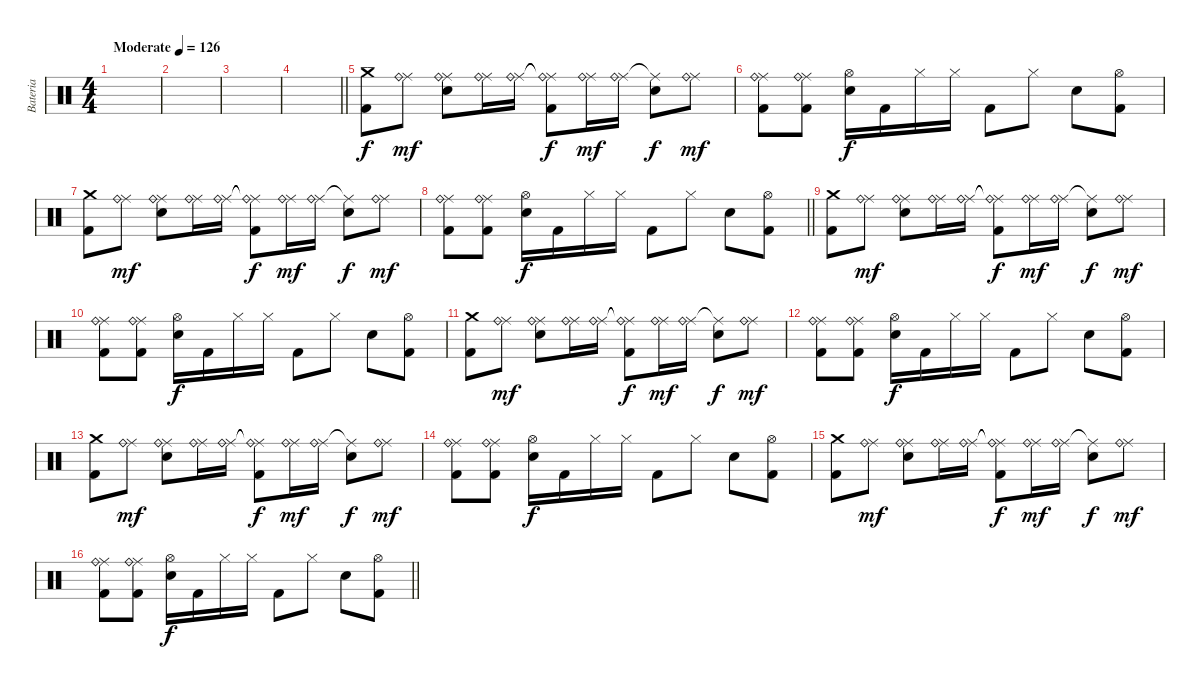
\track ("Bateria" "Bateria") {instrument percussion}
\staff {score}
\articulation defaults
\ts (4 4)
\tempo (126 "Moderate")
\clef neutral
\ks c
|
|
|
\barLineRight lightlight
|
\section ("" "__")
("Crash medium (hit)" "Kick (hit) 2").8 ("Ride (middle)" "Ride (bell)").8{dy mf} ("Ride (middle)" "Ride (bell)" "Electric Snare (hit)").8 ("Ride (middle)" "Ride (bell)").16 ("Ride (middle)" "Ride (bell)").16 ("Ride (middle)"{t} "Ride (bell)"{t} "Kick (hit) 2").8{dy f} ("Ride (middle)" "Ride (bell)").16{dy mf} ("Ride (middle)" "Ride (bell)").16 ("Ride (middle)"{t} "Electric Snare (hit)").8{dy f} ("Ride (middle)" "Ride (bell)").8{dy mf} |
("Ride (middle)" "Ride (bell)" "Kick (hit) 2").8 ("Ride (middle)" "Ride (bell)" "Kick (hit) 2").8 ("Hi-Hat (open)" "Electric Snare (hit)").16{dy f} "Kick (hit) 2".16 "Hi-Hat (closed)".16 "Hi-Hat (closed)".16 "Kick (hit) 2".8 "Hi-Hat (closed)".8 "Electric Snare (hit)".8 ("Hi-Hat (open)" "Kick (hit) 2").8 |
("Crash medium (hit)" "Kick (hit) 2").8 ("Ride (middle)" "Ride (bell)").8{dy mf} ("Ride (middle)" "Ride (bell)" "Electric Snare (hit)").8 ("Ride (middle)" "Ride (bell)").16 ("Ride (middle)" "Ride (bell)").16 ("Ride (middle)"{t} "Ride (bell)"{t} "Kick (hit) 2").8{dy f} ("Ride (middle)" "Ride (bell)").16{dy mf} ("Ride (middle)" "Ride (bell)").16 ("Ride (middle)"{t} "Electric Snare (hit)").8{dy f} ("Ride (middle)" "Ride (bell)").8{dy mf} |
\barLineRight lightlight
("Ride (middle)" "Ride (bell)" "Kick (hit) 2").8 ("Ride (middle)" "Ride (bell)" "Kick (hit) 2").8 ("Hi-Hat (open)" "Electric Snare (hit)").16{dy f} "Kick (hit) 2".16 "Hi-Hat (closed)".16 "Hi-Hat (closed)".16 "Kick (hit) 2".8 "Hi-Hat (closed)".8 "Electric Snare (hit)".8 ("Hi-Hat (open)" "Kick (hit) 2").8 |
("Crash medium (hit)" "Kick (hit) 2").8 ("Ride (middle)" "Ride (bell)").8{dy mf} ("Ride (middle)" "Ride (bell)" "Electric Snare (hit)").8 ("Ride (middle)" "Ride (bell)").16 ("Ride (middle)" "Ride (bell)").16 ("Ride (middle)"{t} "Ride (bell)"{t} "Kick (hit) 2").8{dy f} ("Ride (middle)" "Ride (bell)").16{dy mf} ("Ride (middle)" "Ride (bell)").16 ("Ride (middle)"{t} "Electric Snare (hit)").8{dy f} ("Ride (middle)" "Ride (bell)").8{dy mf} |
("Ride (middle)" "Ride (bell)" "Kick (hit) 2").8 ("Ride (middle)" "Ride (bell)" "Kick (hit) 2").8 ("Hi-Hat (open)" "Electric Snare (hit)").16{dy f} "Kick (hit) 2".16 "Hi-Hat (closed)".16 "Hi-Hat (closed)".16 "Kick (hit) 2".8 "Hi-Hat (closed)".8 "Electric Snare (hit)".8 ("Hi-Hat (open)" "Kick (hit) 2").8 |
("Crash medium (hit)" "Kick (hit) 2").8 ("Ride (middle)" "Ride (bell)").8{dy mf} ("Ride (middle)" "Ride (bell)" "Electric Snare (hit)").8 ("Ride (middle)" "Ride (bell)").16 ("Ride (middle)" "Ride (bell)").16 ("Ride (middle)"{t} "Ride (bell)"{t} "Kick (hit) 2").8{dy f} ("Ride (middle)" "Ride (bell)").16{dy mf} ("Ride (middle)" "Ride (bell)").16 ("Ride (middle)"{t} "Electric Snare (hit)").8{dy f} ("Ride (middle)" "Ride (bell)").8{dy mf} |
("Ride (middle)" "Ride (bell)" "Kick (hit) 2").8 ("Ride (middle)" "Ride (bell)" "Kick (hit) 2").8 ("Hi-Hat (open)" "Electric Snare (hit)").16{dy f} "Kick (hit) 2".16 "Hi-Hat (closed)".16 "Hi-Hat (closed)".16 "Kick (hit) 2".8 "Hi-Hat (closed)".8 "Electric Snare (hit)".8 ("Hi-Hat (open)" "Kick (hit) 2").8 |
("Crash medium (hit)" "Kick (hit) 2").8 ("Ride (middle)" "Ride (bell)").8{dy mf} ("Ride (middle)" "Ride (bell)" "Electric Snare (hit)").8 ("Ride (middle)" "Ride (bell)").16 ("Ride (middle)" "Ride (bell)").16 ("Ride (middle)"{t} "Ride (bell)"{t} "Kick (hit) 2").8{dy f} ("Ride (middle)" "Ride (bell)").16{dy mf} ("Ride (middle)" "Ride (bell)").16 ("Ride (middle)"{t} "Electric Snare (hit)").8{dy f} ("Ride (middle)" "Ride (bell)").8{dy mf} |
("Ride (middle)" "Ride (bell)" "Kick (hit) 2").8 ("Ride (middle)" "Ride (bell)" "Kick (hit) 2").8 ("Hi-Hat (open)" "Electric Snare (hit)").16{dy f} "Kick (hit) 2".16 "Hi-Hat (closed)".16 "Hi-Hat (closed)".16 "Kick (hit) 2".8 "Hi-Hat (closed)".8 "Electric Snare (hit)".8 ("Hi-Hat (open)" "Kick (hit) 2").8 |
("Crash medium (hit)" "Kick (hit) 2").8 ("Ride (middle)" "Ride (bell)").8{dy mf} ("Ride (middle)" "Ride (bell)" "Electric Snare (hit)").8 ("Ride (middle)" "Ride (bell)").16 ("Ride (middle)" "Ride (bell)").16 ("Ride (middle)"{t} "Ride (bell)"{t} "Kick (hit) 2").8{dy f} ("Ride (middle)" "Ride (bell)").16{dy mf} ("Ride (middle)" "Ride (bell)").16 ("Ride (middle)"{t} "Electric Snare (hit)").8{dy f} ("Ride (middle)" "Ride (bell)").8{dy mf} |
\barLineRight lightlight
("Ride (middle)" "Ride (bell)" "Kick (hit) 2").8 ("Ride (middle)" "Ride (bell)" "Kick (hit) 2").8 ("Hi-Hat (open)" "Electric Snare (hit)").16{dy f} "Kick (hit) 2".16 "Hi-Hat (closed)".16 "Hi-Hat (closed)".16 "Kick (hit) 2".8 "Hi-Hat (closed)".8 "Electric Snare (hit)".8 ("Hi-Hat (open)" "Kick (hit) 2").8
